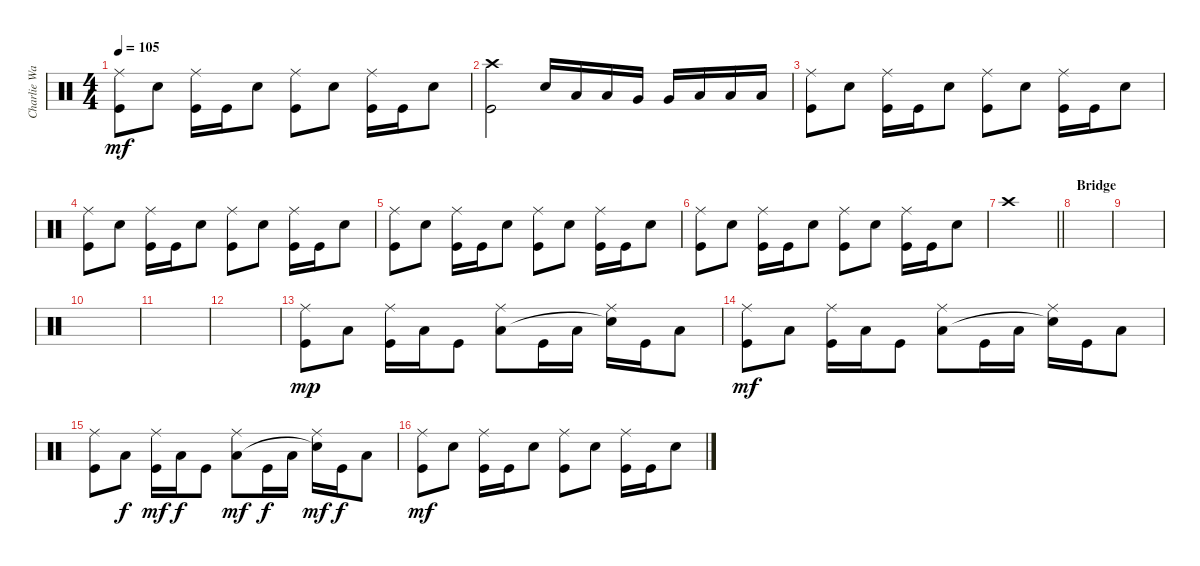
\track ("Charlie Watts" "Charlie Wa") {instrument percussion}
\staff {score}
\articulation defaults
\ts (4 4)
\tempo 105
\clef neutral
\ks c
("Ride (middle)" "Kick (hit)").8{dy mf} "Snare (hit) 2".8 ("Ride (middle)" "Kick (hit)").16 "Kick (hit)".16 "Snare (hit) 2".8 ("Ride (middle)" "Kick (hit)").8 "Snare (hit) 2".8 ("Ride (middle)" "Kick (hit)").16 "Kick (hit)".16 "Snare (hit) 2".8 |
("Crash high (hit)" "Kick (hit)").2 "Snare (hit) 2".16 "Low Tom (hit)".16 "Low Tom (hit)".16 "Very Low Tom (hit)".16 "Very Low Tom (hit)".16 "Low Floor Tom (hit)".16 "Low Floor Tom (hit)".16 "Low Floor Tom (hit)".16 |
("Ride (middle)" "Kick (hit)").8 "Snare (hit) 2".8 ("Ride (middle)" "Kick (hit)").16 "Kick (hit)".16 "Snare (hit) 2".8 ("Ride (middle)" "Kick (hit)").8 "Snare (hit) 2".8 ("Ride (middle)" "Kick (hit)").16 "Kick (hit)".16 "Snare (hit) 2".8 |
("Ride (middle)" "Kick (hit)").8 "Snare (hit) 2".8 ("Ride (middle)" "Kick (hit)").16 "Kick (hit)".16 "Snare (hit) 2".8 ("Ride (middle)" "Kick (hit)").8 "Snare (hit) 2".8 ("Ride (middle)" "Kick (hit)").16 "Kick (hit)".16 "Snare (hit) 2".8 |
("Ride (middle)" "Kick (hit)").8 "Snare (hit) 2".8 ("Ride (middle)" "Kick (hit)").16 "Kick (hit)".16 "Snare (hit) 2".8 ("Ride (middle)" "Kick (hit)").8 "Snare (hit) 2".8 ("Ride (middle)" "Kick (hit)").16 "Kick (hit)".16 "Snare (hit) 2".8 |
("Ride (middle)" "Kick (hit)").8 "Snare (hit) 2".8 ("Ride (middle)" "Kick (hit)").16 "Kick (hit)".16 "Snare (hit) 2".8 ("Ride (middle)" "Kick (hit)").8 "Snare (hit) 2".8 ("Ride (middle)" "Kick (hit)").16 "Kick (hit)".16 "Snare (hit) 2".8 |
\barLineRight lightlight "Crash high (hit)".1
|
\section ("" "Bridge")
|
|
|
|
|
("Ride (middle)" "Kick (hit)").8{dy mp} "Low Tom (hit)".8 ("Ride (middle)" "Kick (hit)").16 "Low Tom (hit)".16 "Kick (hit)".8 ("Ride (middle)" "Low Tom (hit)").8 "Kick (hit)".16 "Low Tom (hit)".16 ("Ride (middle)" "Snare (hit)"{t}).16 "Kick (hit)".16 "Low Tom (hit)".8 |
("Ride (middle)" "Kick (hit)").8{dy mf} "Low Tom (hit)".8 ("Ride (middle)" "Kick (hit)").16 "Low Tom (hit)".16 "Kick (hit)".8 ("Ride (middle)" "Low Tom (hit)").8 "Kick (hit)".16 "Low Tom (hit)".16 ("Ride (middle)" "Snare (hit)"{t}).16 "Kick (hit)".16 "Low Tom (hit)".8 |
("Ride (middle)" "Kick (hit)").8 "Low Tom (hit)".8{dy f} ("Ride (middle)" "Kick (hit)").16{dy mf} "Low Tom (hit)".16{dy f} "Kick (hit)".8 ("Ride (middle)" "Low Tom (hit)").8{dy mf} "Kick (hit)".16{dy f} "Low Tom (hit)".16 ("Ride (middle)" "Snare (hit)"{t}).16{dy mf} "Kick (hit)".16{dy f} "Low Tom (hit)".8 |
("Ride (middle)" "Kick (hit)").8{dy mf} "Snare (hit) 2".8 ("Ride (middle)" "Kick (hit)").16 "Kick (hit)".16 "Snare (hit) 2".8 ("Ride (middle)" "Kick (hit)").8 "Snare (hit) 2".8 ("Ride (middle)" "Kick (hit)").16 "Kick (hit)".16 "Snare (hit) 2".8
